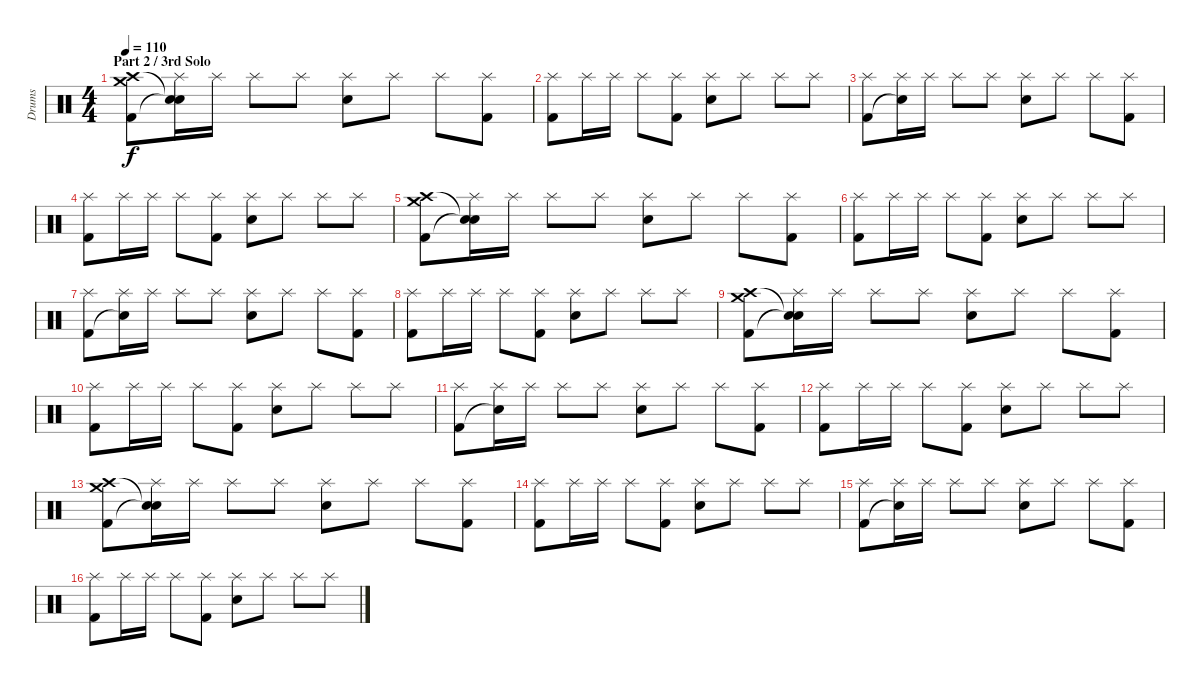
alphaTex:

\track ("Drums" "Drums") {instrument percussion}
\staff {score}
\articulation defaults
\ts (4 4)
\section ("" "Part 2 / 3rd Solo")
\tempo 110
\clef neutral
\ks c
("Crash medium (hit)" "Crash high (hit)" "Kick (hit) 2").8{dy f} ("Splash (hit)" "Snare (hit)"{t} "Snare (hit)"{t}).16 "Splash (hit)".16 "Splash (hit)".8 "Splash (hit)".8 ("Splash (hit)" "Snare (hit) 2").8 "Splash (hit)".8 "Splash (hit)".8 ("Splash (hit)" "Kick (hit) 2").8 |
("Splash (hit)" "Kick (hit) 2").8 "Splash (hit)".16 "Splash (hit)".16 "Splash (hit)".8 ("Splash (hit)" "Kick (hit) 2").8 ("Splash (hit)" "Snare (hit) 2").8 "Splash (hit)".8 "Splash (hit)".8 "Splash (hit)".8 |
("Splash (hit)" "Kick (hit) 2").8 ("Splash (hit)" "Snare (hit)"{t}).16 "Splash (hit)".16 "Splash (hit)".8 "Splash (hit)".8 ("Splash (hit)" "Snare (hit) 2").8 "Splash (hit)".8 "Splash (hit)".8 ("Splash (hit)" "Kick (hit) 2").8 |
("Splash (hit)" "Kick (hit) 2").8 "Splash (hit)".16 "Splash (hit)".16 "Splash (hit)".8 ("Splash (hit)" "Kick (hit) 2").8 ("Splash (hit)" "Snare (hit) 2").8 "Splash (hit)".8 "Splash (hit)".8 "Splash (hit)".8 |
("Crash medium (hit)" "Crash high (hit)" "Kick (hit) 2").8 ("Splash (hit)" "Snare (hit)"{t} "Snare (hit)"{t}).16 "Splash (hit)".16 "Splash (hit)".8 "Splash (hit)".8 ("Splash (hit)" "Snare (hit) 2").8 "Splash (hit)".8 "Splash (hit)".8 ("Splash (hit)" "Kick (hit) 2").8 |
("Splash (hit)" "Kick (hit) 2").8 "Splash (hit)".16 "Splash (hit)".16 "Splash (hit)".8 ("Splash (hit)" "Kick (hit) 2").8 ("Splash (hit)" "Snare (hit) 2").8 "Splash (hit)".8 "Splash (hit)".8 "Splash (hit)".8 |
("Splash (hit)" "Kick (hit) 2").8 ("Splash (hit)" "Snare (hit)"{t}).16 "Splash (hit)".16 "Splash (hit)".8 "Splash (hit)".8 ("Splash (hit)" "Snare (hit) 2").8 "Splash (hit)".8 "Splash (hit)".8 ("Splash (hit)" "Kick (hit) 2").8 |
("Splash (hit)" "Kick (hit) 2").8 "Splash (hit)".16 "Splash (hit)".16 "Splash (hit)".8 ("Splash (hit)" "Kick (hit) 2").8 ("Splash (hit)" "Snare (hit) 2").8 "Splash (hit)".8 "Splash (hit)".8 "Splash (hit)".8 |
("Crash medium (hit)" "Crash high (hit)" "Kick (hit) 2").8 ("Splash (hit)" "Snare (hit)"{t} "Snare (hit)"{t}).16 "Splash (hit)".16 "Splash (hit)".8 "Splash (hit)".8 ("Splash (hit)" "Snare (hit) 2").8 "Splash (hit)".8 "Splash (hit)".8 ("Splash (hit)" "Kick (hit) 2").8 |
("Splash (hit)" "Kick (hit) 2").8 "Splash (hit)".16 "Splash (hit)".16 "Splash (hit)".8 ("Splash (hit)" "Kick (hit) 2").8 ("Splash (hit)" "Snare (hit) 2").8 "Splash (hit)".8 "Splash (hit)".8 "Splash (hit)".8 |
("Splash (hit)" "Kick (hit) 2").8 ("Splash (hit)" "Snare (hit)"{t}).16 "Splash (hit)".16 "Splash (hit)".8 "Splash (hit)".8 ("Splash (hit)" "Snare (hit) 2").8 "Splash (hit)".8 "Splash (hit)".8 ("Splash (hit)" "Kick (hit) 2").8 |
("Splash (hit)" "Kick (hit) 2").8 "Splash (hit)".16 "Splash (hit)".16 "Splash (hit)".8 ("Splash (hit)" "Kick (hit) 2").8 ("Splash (hit)" "Snare (hit) 2").8 "Splash (hit)".8 "Splash (hit)".8 "Splash (hit)".8 |
("Crash medium (hit)" "Crash high (hit)" "Kick (hit) 2").8 ("Splash (hit)" "Snare (hit)"{t} "Snare (hit)"{t}).16 "Splash (hit)".16 "Splash (hit)".8 "Splash (hit)".8 ("Splash (hit)" "Snare (hit) 2").8 "Splash (hit)".8 "Splash (hit)".8 ("Splash (hit)" "Kick (hit) 2").8 |
("Splash (hit)" "Kick (hit) 2").8 "Splash (hit)".16 "Splash (hit)".16 "Splash (hit)".8 ("Splash (hit)" "Kick (hit) 2").8 ("Splash (hit)" "Snare (hit) 2").8 "Splash (hit)".8 "Splash (hit)".8 "Splash (hit)".8 |
("Splash (hit)" "Kick (hit) 2").8 ("Splash (hit)" "Snare (hit)"{t}).16 "Splash (hit)".16 "Splash (hit)".8 "Splash (hit)".8 ("Splash (hit)" "Snare (hit) 2").8 "Splash (hit)".8 "Splash (hit)".8 ("Splash (hit)" "Kick (hit) 2").8 |
("Splash (hit)" "Kick (hit) 2").8 "Splash (hit)".16 "Splash (hit)".16 "Splash (hit)".8 ("Splash (hit)" "Kick (hit) 2").8 ("Splash (hit)" "Snare (hit) 2").8 "Splash (hit)".8 "Splash (hit)".8 "Splash (hit)".8
